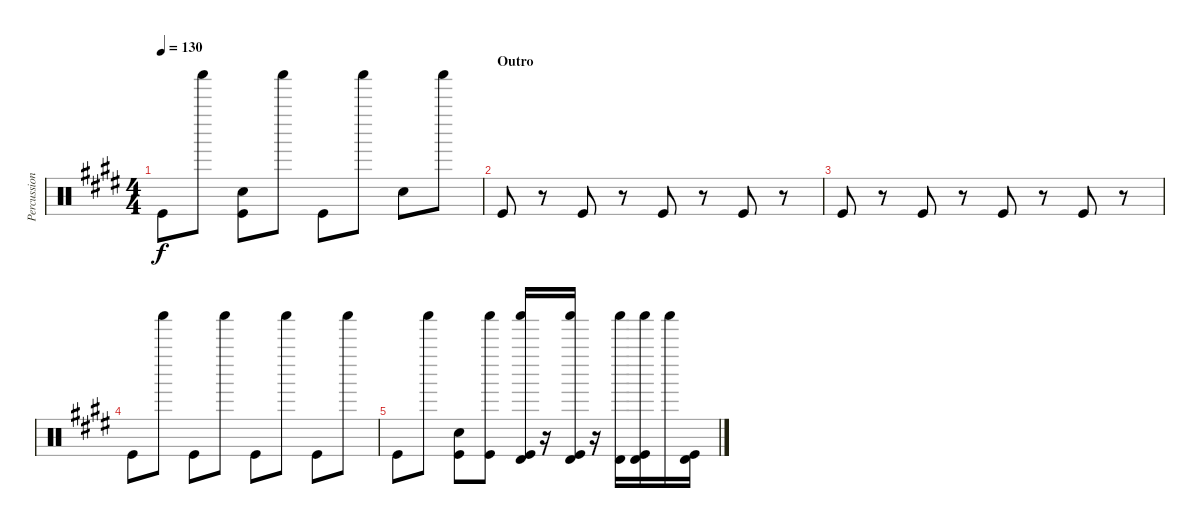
\track ("Percussion" "Percussion") {instrument percussion}
\staff {score}
\articulation defaults
\ts (4 4)
\tempo 130
\clef neutral
\ks e "Kick (hit)".8{dy f} "Shaker (hit)".8
("Electric Snare (hit)" "Kick (hit)").8 "Shaker (hit)".8 "Kick (hit)".8 "Shaker (hit)".8 "Electric Snare (hit)".8 "Shaker (hit)".8 |
\section ("" "Outro")
"Kick (hit)".8 r.8 "Kick (hit)".8 r.8 "Kick (hit)".8 r.8 "Kick (hit)".8 r.8 |
"Kick (hit)".8 r.8 "Kick (hit)".8 r.8 "Kick (hit)".8 r.8 "Kick (hit)".8 r.8 |
"Kick (hit)".8 "Shaker (hit)".8 "Kick (hit)".8 "Shaker (hit)".8 "Kick (hit)".8 "Shaker (hit)".8 "Kick (hit)".8 "Shaker (hit)".8 |
"Kick (hit)".8 "Shaker (hit)".8 ("Electric Snare (hit)" "Kick (hit)").8 ("Shaker (hit)" "Kick (hit)").8 ("Timbale high (hit)" "Shaker (hit)" "Kick (hit)").16 r.16 ("Timbale high (hit)" "Shaker (hit)" "Kick (hit)").16 r.16 ("Timbale high (hit)" "Shaker (hit)").16 ("Timbale high (hit)" "Shaker (hit)" "Kick (hit)").16 "Shaker (hit)".16 ("Timbale high (hit)" "Kick (hit)").16
